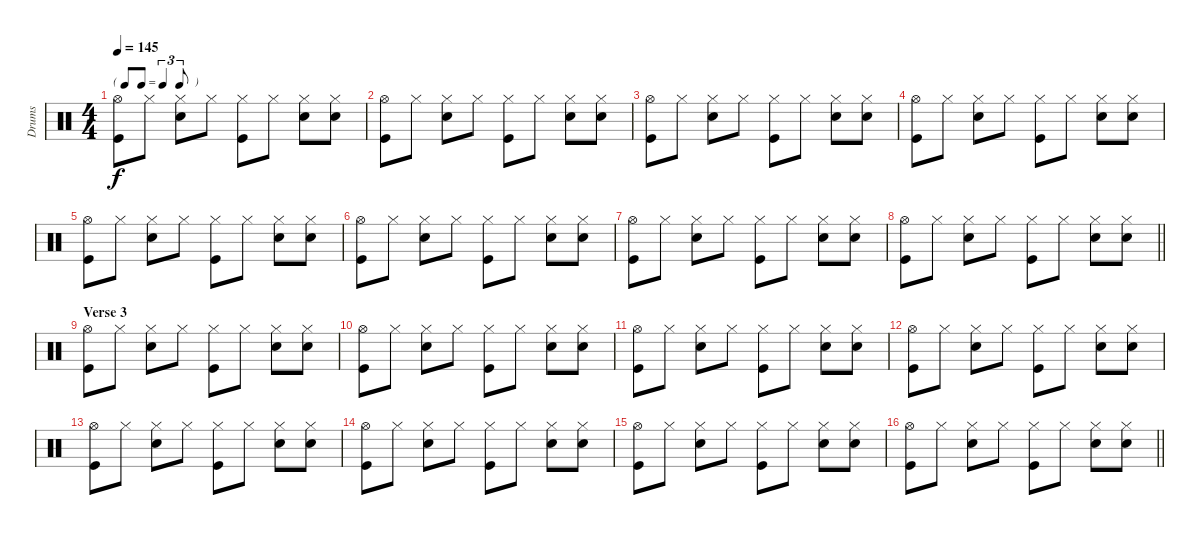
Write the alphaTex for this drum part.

\track ("Drums" "Drums") {instrument percussion}
\staff {score}
\articulation defaults
\ts (4 4)
\tf triplet8th
\tempo 145
\clef neutral
\ks c
("Kick (hit)" "Hi-Hat (open)").8{dy f} "Hi-Hat (closed)".8 ("Snare (hit) 2" "Hi-Hat (closed)").8 "Hi-Hat (closed)".8 ("Kick (hit)" "Hi-Hat (closed)").8 "Hi-Hat (closed)".8 ("Snare (hit) 2" "Hi-Hat (closed)").8 ("Snare (hit) 2" "Hi-Hat (closed)").8 |
("Kick (hit)" "Hi-Hat (open)").8 "Hi-Hat (closed)".8 ("Snare (hit) 2" "Hi-Hat (closed)").8 "Hi-Hat (closed)".8 ("Kick (hit)" "Hi-Hat (closed)").8 "Hi-Hat (closed)".8 ("Snare (hit) 2" "Hi-Hat (closed)").8 ("Snare (hit) 2" "Hi-Hat (closed)").8 |
("Kick (hit)" "Hi-Hat (open)").8 "Hi-Hat (closed)".8 ("Snare (hit) 2" "Hi-Hat (closed)").8 "Hi-Hat (closed)".8 ("Kick (hit)" "Hi-Hat (closed)").8 "Hi-Hat (closed)".8 ("Snare (hit) 2" "Hi-Hat (closed)").8 ("Snare (hit) 2" "Hi-Hat (closed)").8 |
("Kick (hit)" "Hi-Hat (open)").8 "Hi-Hat (closed)".8 ("Snare (hit) 2" "Hi-Hat (closed)").8 "Hi-Hat (closed)".8 ("Kick (hit)" "Hi-Hat (closed)").8 "Hi-Hat (closed)".8 ("Snare (hit) 2" "Hi-Hat (closed)").8 ("Snare (hit) 2" "Hi-Hat (closed)").8 |
("Kick (hit)" "Hi-Hat (open)").8 "Hi-Hat (closed)".8 ("Snare (hit) 2" "Hi-Hat (closed)").8 "Hi-Hat (closed)".8 ("Kick (hit)" "Hi-Hat (closed)").8 "Hi-Hat (closed)".8 ("Snare (hit) 2" "Hi-Hat (closed)").8 ("Snare (hit) 2" "Hi-Hat (closed)").8 |
("Kick (hit)" "Hi-Hat (open)").8 "Hi-Hat (closed)".8 ("Snare (hit) 2" "Hi-Hat (closed)").8 "Hi-Hat (closed)".8 ("Kick (hit)" "Hi-Hat (closed)").8 "Hi-Hat (closed)".8 ("Snare (hit) 2" "Hi-Hat (closed)").8 ("Snare (hit) 2" "Hi-Hat (closed)").8 |
("Kick (hit)" "Hi-Hat (open)").8 "Hi-Hat (closed)".8 ("Snare (hit) 2" "Hi-Hat (closed)").8 "Hi-Hat (closed)".8 ("Kick (hit)" "Hi-Hat (closed)").8 "Hi-Hat (closed)".8 ("Snare (hit) 2" "Hi-Hat (closed)").8 ("Snare (hit) 2" "Hi-Hat (closed)").8 |
\barLineRight lightlight
("Kick (hit)" "Hi-Hat (open)").8 "Hi-Hat (closed)".8 ("Snare (hit) 2" "Hi-Hat (closed)").8 "Hi-Hat (closed)".8 ("Kick (hit)" "Hi-Hat (closed)").8 "Hi-Hat (closed)".8 ("Snare (hit) 2" "Hi-Hat (closed)").8 ("Snare (hit) 2" "Hi-Hat (closed)").8 |
\section ("" "Verse 3")
("Kick (hit)" "Hi-Hat (open)").8 "Hi-Hat (closed)".8 ("Snare (hit) 2" "Hi-Hat (closed)").8 "Hi-Hat (closed)".8 ("Kick (hit)" "Hi-Hat (closed)").8 "Hi-Hat (closed)".8 ("Snare (hit) 2" "Hi-Hat (closed)").8 ("Snare (hit) 2" "Hi-Hat (closed)").8 |
("Kick (hit)" "Hi-Hat (open)").8 "Hi-Hat (closed)".8 ("Snare (hit) 2" "Hi-Hat (closed)").8 "Hi-Hat (closed)".8 ("Kick (hit)" "Hi-Hat (closed)").8 "Hi-Hat (closed)".8 ("Snare (hit) 2" "Hi-Hat (closed)").8 ("Snare (hit) 2" "Hi-Hat (closed)").8 |
("Kick (hit)" "Hi-Hat (open)").8 "Hi-Hat (closed)".8 ("Snare (hit) 2" "Hi-Hat (closed)").8 "Hi-Hat (closed)".8 ("Kick (hit)" "Hi-Hat (closed)").8 "Hi-Hat (closed)".8 ("Snare (hit) 2" "Hi-Hat (closed)").8 ("Snare (hit) 2" "Hi-Hat (closed)").8 |
("Kick (hit)" "Hi-Hat (open)").8 "Hi-Hat (closed)".8 ("Snare (hit) 2" "Hi-Hat (closed)").8 "Hi-Hat (closed)".8 ("Kick (hit)" "Hi-Hat (closed)").8 "Hi-Hat (closed)".8 ("Snare (hit) 2" "Hi-Hat (closed)").8 ("Snare (hit) 2" "Hi-Hat (closed)").8 |
("Kick (hit)" "Hi-Hat (open)").8 "Hi-Hat (closed)".8 ("Snare (hit) 2" "Hi-Hat (closed)").8 "Hi-Hat (closed)".8 ("Kick (hit)" "Hi-Hat (closed)").8 "Hi-Hat (closed)".8 ("Snare (hit) 2" "Hi-Hat (closed)").8 ("Snare (hit) 2" "Hi-Hat (closed)").8 |
("Kick (hit)" "Hi-Hat (open)").8 "Hi-Hat (closed)".8 ("Snare (hit) 2" "Hi-Hat (closed)").8 "Hi-Hat (closed)".8 ("Kick (hit)" "Hi-Hat (closed)").8 "Hi-Hat (closed)".8 ("Snare (hit) 2" "Hi-Hat (closed)").8 ("Snare (hit) 2" "Hi-Hat (closed)").8 |
("Kick (hit)" "Hi-Hat (open)").8 "Hi-Hat (closed)".8 ("Snare (hit) 2" "Hi-Hat (closed)").8 "Hi-Hat (closed)".8 ("Kick (hit)" "Hi-Hat (closed)").8 "Hi-Hat (closed)".8 ("Snare (hit) 2" "Hi-Hat (closed)").8 ("Snare (hit) 2" "Hi-Hat (closed)").8 |
\barLineRight lightlight
("Kick (hit)" "Hi-Hat (open)").8 "Hi-Hat (closed)".8 ("Snare (hit) 2" "Hi-Hat (closed)").8 "Hi-Hat (closed)".8 ("Kick (hit)" "Hi-Hat (closed)").8 "Hi-Hat (closed)".8 ("Snare (hit) 2" "Hi-Hat (closed)").8 ("Snare (hit) 2" "Hi-Hat (closed)").8
